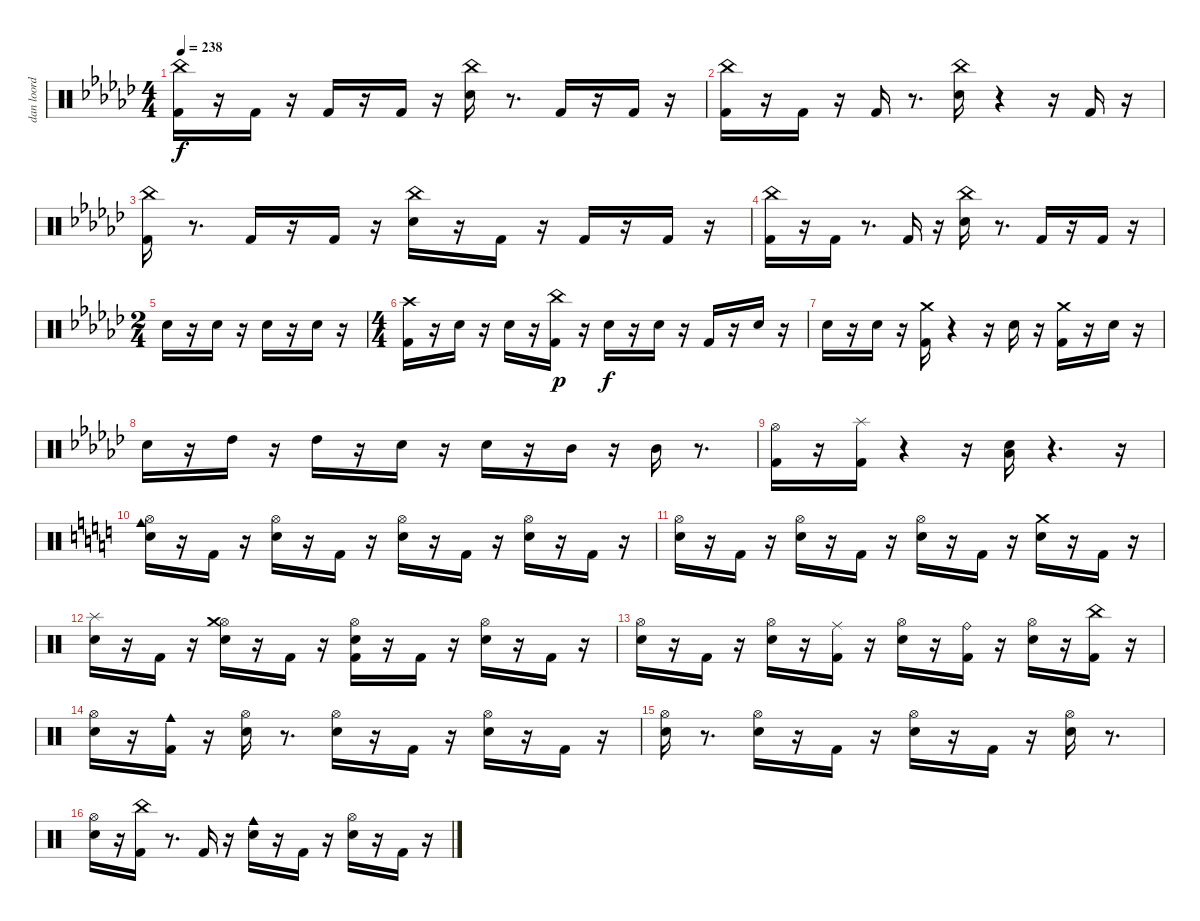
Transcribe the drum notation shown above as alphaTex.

\track ("dan loord foord" "dan loord ") {instrument percussion}
\staff {score}
\articulation defaults
\ts (4 4)
\tempo 238
\clef neutral
\ks gb
("Kick (hit) 2" "China (hit)").16{dy f} r.16 "Kick (hit) 2".16 r.16 "Kick (hit) 2".16 r.16 "Kick (hit) 2".16 r.16 ("Snare (hit) 2" "China (hit)").16 r.8{d} "Kick (hit) 2".16 r.16 "Kick (hit) 2".16 r.16 |
("Kick (hit) 2" "China (hit)").16 r.16 "Kick (hit) 2".16 r.16 "Kick (hit) 2".16 r.8{d} ("Snare (hit) 2" "China (hit)").16 r.4 r.16 "Kick (hit) 2".16 r.16 |
("Kick (hit) 2" "China (hit)").16 r.8{d} "Kick (hit) 2".16 r.16 "Kick (hit) 2".16 r.16 ("Snare (hit) 2" "China (hit)").16 r.16 "Kick (hit) 2".16 r.16 "Kick (hit) 2".16 r.16 "Kick (hit) 2".16 r.16 |
("Kick (hit) 2" "China (hit)").16 r.16 "Kick (hit) 2".16 r.8{d} "Kick (hit) 2".16 r.16 ("Snare (hit) 2" "China (hit)").16 r.8{d} "Kick (hit) 2".16 r.16 "Kick (hit) 2".16 r.16 |
\ts (2 4)
"Snare (hit) 2".16 r.16 "Snare (hit) 2".16 r.16 "Snare (hit) 2".16 r.16 "Snare (hit) 2".16 r.16 |
\ts (4 4)
("Kick (hit) 2" "Crash high (hit)").16 r.16 "Snare (hit) 2".16 r.16 "Snare (hit) 2".16 r.16 ("Kick (hit) 2" "China (hit)").16{dy p} r.16 "Snare (hit) 2".16{dy f} r.16 "Snare (hit) 2".16 r.16 "Kick (hit) 2".16 r.16 "Snare (hit) 2".16 r.16 |
"Snare (hit) 2".16 r.16 "Snare (hit) 2".16 r.16 ("Kick (hit) 2" "Crash medium (hit)").16 r.4 r.16 "Snare (hit) 2".16 r.16 ("Kick (hit) 2" "Crash medium (hit)").16 r.16 "Snare (hit) 2".16 r.16 |
"Snare (hit) 2".16 r.16 "High Tom (hit)".16 r.16 "High Tom (hit)".16 r.16 "Snare (hit) 2".16 r.16 "Snare (hit) 2".16 r.16 "Mid Tom (hit)".16 r.16 "Mid Tom (hit)".16 r.8{d} |
("Kick (hit) 2" "Hi-Hat (open)").16 r.16 ("Kick (hit) 2" "Splash (hit)").16 r.4 r.16 ("Snare (hit) 2" "Low Floor Tom (hit)").16 r.4{d} r.16 |
\ks c
("Snare (hit) 2" "Hi-Hat (open)" "Cowbell medium (hit)").16 r.16 "Kick (hit) 2".16 r.16 ("Snare (hit) 2" "Hi-Hat (open)").16 r.16 "Kick (hit) 2".16 r.16 ("Snare (hit) 2" "Hi-Hat (open)").16 r.16 "Kick (hit) 2".16 r.16 ("Snare (hit) 2" "Hi-Hat (open)").16 r.16 "Kick (hit) 2".16 r.16 |
("Snare (hit) 2" "Hi-Hat (open)").16 r.16 "Kick (hit) 2".16 r.16 ("Snare (hit) 2" "Hi-Hat (open)").16 r.16 "Kick (hit) 2".16 r.16 ("Snare (hit) 2" "Hi-Hat (open)").16 r.16 "Kick (hit) 2".16 r.16 ("Snare (hit) 2" "Crash medium (hit)").16 r.16 "Kick (hit) 2".16 r.16 |
("Snare (hit) 2" "Splash (hit)").16 r.16 "Kick (hit) 2".16 r.16 ("Snare (hit) 2" "Hi-Hat (open)" "Crash medium (hit)").16 r.16 "Kick (hit) 2".16 r.16 ("Kick (hit) 2" "Snare (hit) 2" "Hi-Hat (open)").16 r.16 "Kick (hit) 2".16 r.16 ("Snare (hit) 2" "Hi-Hat (open)").16 r.16 "Kick (hit) 2".16 r.16 |
("Snare (hit) 2" "Hi-Hat (open)").16 r.16 "Kick (hit) 2".16 r.16 ("Snare (hit) 2" "Hi-Hat (open)").16 r.16 ("Kick (hit) 2" "Ride (middle)").16 r.16 ("Snare (hit) 2" "Hi-Hat (open)").16 r.16 ("Kick (hit) 2" "Ride (bell)").16 r.16 ("Snare (hit) 2" "Hi-Hat (open)").16 r.16 ("Kick (hit) 2" "China (hit)").16 r.16 |
("Snare (hit) 2" "Hi-Hat (open)").16 r.16 ("Kick (hit) 2" "Cowbell medium (hit)").16 r.16 ("Snare (hit) 2" "Hi-Hat (open)").16 r.8{d} ("Snare (hit) 2" "Hi-Hat (open)").16 r.16 "Kick (hit) 2".16 r.16 ("Snare (hit) 2" "Hi-Hat (open)").16 r.16 "Kick (hit) 2".16 r.16 |
("Snare (hit) 2" "Hi-Hat (open)").16 r.8{d} ("Snare (hit) 2" "Hi-Hat (open)").16 r.16 "Kick (hit) 2".16 r.16 ("Snare (hit) 2" "Hi-Hat (open)").16 r.16 "Kick (hit) 2".16 r.16 ("Snare (hit) 2" "Hi-Hat (open)").16 r.8{d} |
("Snare (hit) 2" "Hi-Hat (open)").16 r.16 ("Kick (hit) 2" "China (hit)").16 r.8{d} "Kick (hit) 2".16 r.16 ("Snare (hit) 2" "Cowbell medium (hit)").16 r.16 "Kick (hit) 2".16 r.16 ("Snare (hit) 2" "Hi-Hat (open)").16 r.16 "Kick (hit) 2".16 r.16
